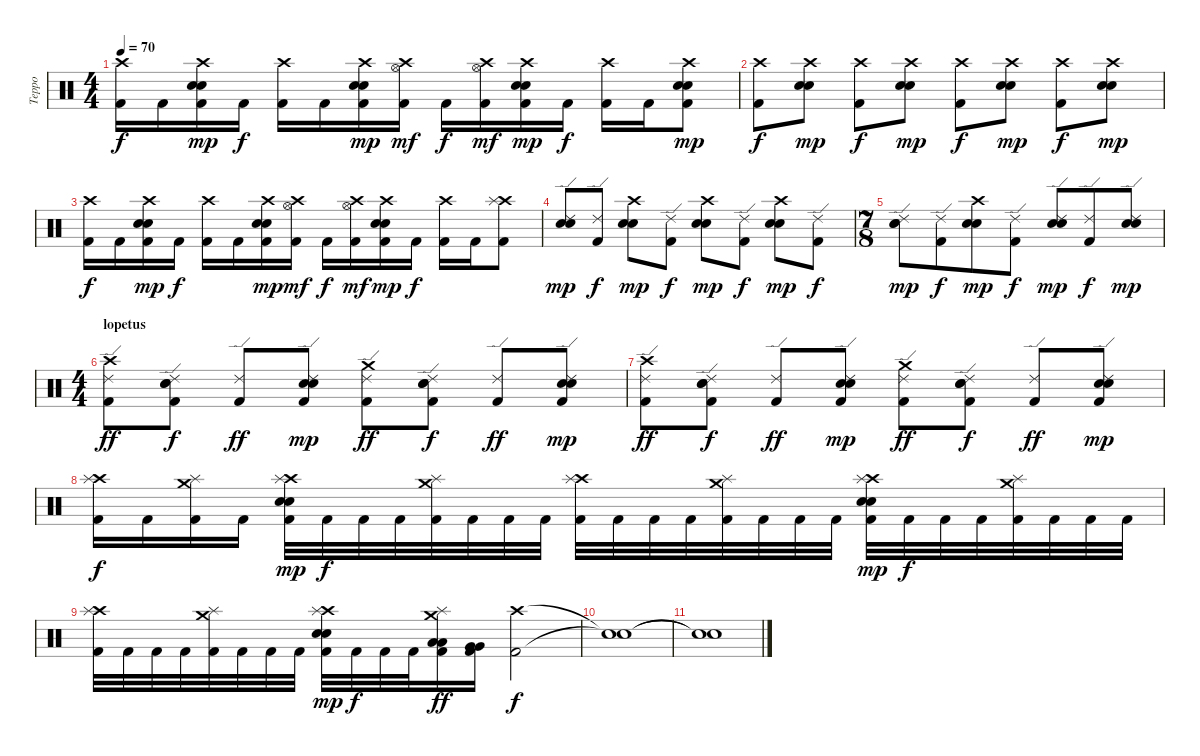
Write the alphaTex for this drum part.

\track ("Teppo" "Teppo") {instrument percussion}
\staff {score}
\articulation defaults
\ts (4 4)
\tempo 70
\clef neutral
\ks c
("Crash high (hit)" "Kick (hit) 2").16{dy f} "Kick (hit) 2".16 ("Crash high (hit)" "Snare (hit) 2" "Electric Snare (hit)" "Kick (hit) 2").16{dy mp} "Kick (hit) 2".16{dy f} ("Crash high (hit)" "Kick (hit) 2").16 "Kick (hit) 2".16 ("Crash high (hit)" "Snare (hit) 2" "Electric Snare (hit)" "Kick (hit) 2").16{dy mp} ("Hi-Hat (open)" "Crash high (hit)" "Kick (hit) 2").16{dy mf} "Kick (hit) 2".16{dy f} ("Hi-Hat (open)" "Crash high (hit)" "Kick (hit) 2").16{dy mf} ("Crash high (hit)" "Snare (hit) 2" "Electric Snare (hit)" "Kick (hit) 2").16{dy mp} "Kick (hit) 2".16{dy f} ("Crash high (hit)" "Kick (hit) 2").16 "Kick (hit) 2".16 ("Crash high (hit)" "Snare (hit) 2" "Electric Snare (hit)" "Kick (hit) 2").8{dy mp} |
("Crash high (hit)" "Kick (hit) 2").8{dy f} ("Crash high (hit)" "Snare (hit) 2" "Electric Snare (hit)").8{dy mp} ("Crash high (hit)" "Kick (hit) 2").8{dy f} ("Crash high (hit)" "Snare (hit) 2" "Electric Snare (hit)").8{dy mp} ("Crash high (hit)" "Kick (hit) 2").8{dy f} ("Crash high (hit)" "Snare (hit) 2" "Electric Snare (hit)").8{dy mp} ("Crash high (hit)" "Kick (hit) 2").8{dy f} ("Crash high (hit)" "Snare (hit) 2" "Electric Snare (hit)").8{dy mp} |
("Crash high (hit)" "Kick (hit) 2").16{dy f} "Kick (hit) 2".16 ("Crash high (hit)" "Snare (hit) 2" "Electric Snare (hit)" "Kick (hit) 2").16{dy mp} "Kick (hit) 2".16{dy f} ("Crash high (hit)" "Kick (hit) 2").16 "Kick (hit) 2".16 ("Crash high (hit)" "Snare (hit) 2" "Electric Snare (hit)" "Kick (hit) 2").16{dy mp} ("Hi-Hat (open)" "Crash high (hit)" "Kick (hit) 2").16{dy mf} "Kick (hit) 2".16{dy f} ("Hi-Hat (open)" "Crash high (hit)" "Kick (hit) 2").16{dy mf} ("Crash high (hit)" "Snare (hit) 2" "Electric Snare (hit)" "Kick (hit) 2").16{dy mp} "Kick (hit) 2".16{dy f} ("Crash high (hit)" "Kick (hit) 2").16 "Kick (hit) 2".16 ("Crash high (hit)" "Splash (hit)" "Kick (hit) 2").8 |
("Ride (edge) 2" "Snare (hit) 2" "Electric Snare (hit)").8{dy mp} ("Ride (edge) 2" "Kick (hit) 2").8{dy f} ("Crash high (hit)" "Snare (hit) 2" "Electric Snare (hit)").8{dy mp} ("Ride (edge) 2" "Kick (hit) 2").8{dy f} ("Crash high (hit)" "Snare (hit) 2" "Electric Snare (hit)").8{dy mp} ("Ride (edge) 2" "Kick (hit) 2").8{dy f} ("Crash high (hit)" "Snare (hit) 2" "Electric Snare (hit)").8{dy mp} ("Ride (edge) 2" "Kick (hit) 2").8{dy f} |
\ts (7 8)
("Ride (edge) 2" "Snare (hit) 2" "Electric Snare (hit)").8{dy mp} ("Ride (edge) 2" "Kick (hit) 2").8{dy f} ("Crash high (hit)" "Snare (hit) 2" "Electric Snare (hit)").8{dy mp} ("Ride (edge) 2" "Kick (hit) 2").8{dy f} ("Ride (edge) 2" "Snare (hit) 2" "Electric Snare (hit)").8{dy mp} ("Ride (edge) 2" "Kick (hit) 2").8{dy f} ("Ride (edge) 2" "Snare (hit) 2" "Electric Snare (hit)").8{dy mp} |
\ts (4 4)
\section ("" "lopetus")
("Ride (edge) 2" "Crash high (hit)" "Kick (hit) 2").8{dy ff} ("Ride (edge) 2" "Snare (hit) 2" "Electric Snare (hit)" "Kick (hit) 2").8{dy f} ("Ride (edge) 2" "Kick (hit) 2").8{dy ff} ("Ride (edge) 2" "Snare (hit) 2" "Electric Snare (hit)" "Kick (hit) 2").8{dy mp} ("Ride (edge) 2" "Crash medium (hit)" "Kick (hit) 2").8{dy ff} ("Ride (edge) 2" "Snare (hit) 2" "Electric Snare (hit)" "Kick (hit) 2").8{dy f} ("Ride (edge) 2" "Kick (hit) 2").8{dy ff} ("Ride (edge) 2" "Snare (hit) 2" "Electric Snare (hit)" "Kick (hit) 2").8{dy mp} |
("Ride (edge) 2" "Crash high (hit)" "Kick (hit) 2").8{dy ff} ("Ride (edge) 2" "Snare (hit) 2" "Electric Snare (hit)" "Kick (hit) 2").8{dy f} ("Ride (edge) 2" "Kick (hit) 2").8{dy ff} ("Ride (edge) 2" "Snare (hit) 2" "Electric Snare (hit)" "Kick (hit) 2").8{dy mp} ("Ride (edge) 2" "Crash medium (hit)" "Kick (hit) 2").8{dy ff} ("Ride (edge) 2" "Snare (hit) 2" "Electric Snare (hit)" "Kick (hit) 2").8{dy f} ("Ride (edge) 2" "Kick (hit) 2").8{dy ff} ("Ride (edge) 2" "Snare (hit) 2" "Electric Snare (hit)" "Kick (hit) 2").8{dy mp} |
("Crash high (hit)" "Splash (hit)" "Kick (hit) 2").16{dy f} "Kick (hit) 2".16 ("Crash medium (hit)" "Splash (hit)" "Kick (hit) 2").16 "Kick (hit) 2".16 ("Crash high (hit)" "Splash (hit)" "Snare (hit) 2" "Electric Snare (hit)" "Kick (hit) 2").32{dy mp} "Kick (hit) 2".32{dy f} "Kick (hit) 2".32 "Kick (hit) 2".32 ("Crash medium (hit)" "Splash (hit)" "Kick (hit) 2").32 "Kick (hit) 2".32 "Kick (hit) 2".32 "Kick (hit) 2".32 ("Crash high (hit)" "Splash (hit)" "Kick (hit) 2").32 "Kick (hit) 2".32 "Kick (hit) 2".32 "Kick (hit) 2".32 ("Crash medium (hit)" "Splash (hit)" "Kick (hit) 2").32 "Kick (hit) 2".32 "Kick (hit) 2".32 "Kick (hit) 2".32 ("Crash high (hit)" "Splash (hit)" "Snare (hit) 2" "Electric Snare (hit)" "Kick (hit) 2").32{dy mp} "Kick (hit) 2".32{dy f} "Kick (hit) 2".32 "Kick (hit) 2".32 ("Crash medium (hit)" "Splash (hit)" "Kick (hit) 2").32 "Kick (hit) 2".32 "Kick (hit) 2".32 "Kick (hit) 2".32 |
("Crash high (hit)" "Splash (hit)" "Kick (hit) 2").32 "Kick (hit) 2".32 "Kick (hit) 2".32 "Kick (hit) 2".32 ("Crash medium (hit)" "Splash (hit)" "Kick (hit) 2").32 "Kick (hit) 2".32 "Kick (hit) 2".32 "Kick (hit) 2".32 ("Crash high (hit)" "Splash (hit)" "Snare (hit) 2" "Electric Snare (hit)" "Kick (hit) 2").32{dy mp} "Kick (hit) 2".32{dy f} "Kick (hit) 2".32 "Kick (hit) 2".32 ("Crash medium (hit)" "Splash (hit)" "Low Tom (hit)" "Low Tom (hit)" "Kick (hit) 2").16{dy ff} ("Very Low Tom (hit)" "Very Low Tom (hit)" "Kick (hit) 2").16 ("Crash high (hit)" "Kick (hit) 2").2{dy f} |
("Snare (hit)"{t} "Snare (hit)"{t}).1 |
("Snare (hit)"{t} "Snare (hit)"{t}).1
